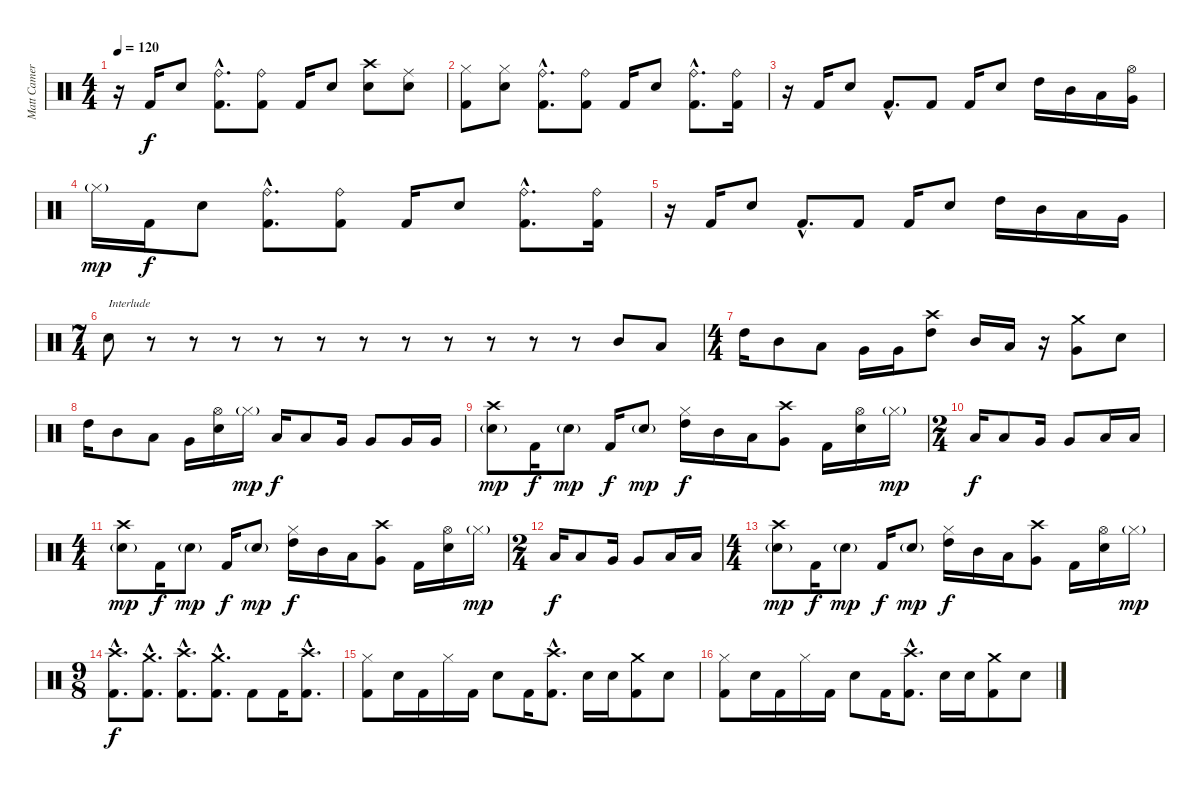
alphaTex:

\track ("Matt Cameron" "Matt Camer") {instrument percussion}
\staff {score}
\articulation defaults
\ts (4 4)
\tempo 120
\clef neutral
\ks c
r.16{dy f} "Kick (hit) 2".16 "Electric Snare (hit)".8 ("Ride (bell)"{hac} "Kick (hit) 2"{hac}).8{d} ("Ride (bell)" "Kick (hit) 2").8 "Kick (hit) 2".16 "Electric Snare (hit)".8 ("Crash high (hit)" "Electric Snare (hit)").8 ("Ride (middle)" "Electric Snare (hit)").8 |
("Hi-Hat (closed)" "Kick (hit) 2").8 ("Hi-Hat (closed)" "Electric Snare (hit)").8 ("Ride (bell)"{hac} "Kick (hit) 2"{hac}).8{d} ("Ride (bell)" "Kick (hit) 2").8 "Kick (hit) 2".16 "Electric Snare (hit)".8 ("Ride (bell)"{hac} "Kick (hit) 2"{hac}).8{d} ("Ride (bell)" "Kick (hit) 2").16 |
r.16 "Kick (hit) 2".16 "Electric Snare (hit)".8 "Kick (hit) 2"{hac}.8{d} "Kick (hit) 2".8 "Kick (hit) 2".16 "Electric Snare (hit)".8 "High Tom (hit)".16 "Mid Tom (hit)".16 "Low Tom (hit)".16 ("Hi-Hat (open)" "Very Low Tom (hit)").16 |
"Hi-Hat (closed)"{g}.16{dy mp} "Kick (hit) 2".16{dy f} "Electric Snare (hit)".8 ("Ride (bell)"{hac} "Kick (hit) 2"{hac}).8{d} ("Ride (bell)" "Kick (hit) 2").8 "Kick (hit) 2".16 "Electric Snare (hit)".8 ("Ride (bell)"{hac} "Kick (hit) 2"{hac}).8{d} ("Ride (bell)" "Kick (hit) 2").16 |
r.16 "Kick (hit) 2".16 "Electric Snare (hit)".8 "Kick (hit) 2"{hac}.8{d} "Kick (hit) 2".8 "Kick (hit) 2".16 "Electric Snare (hit)".8 "High Tom (hit)".16 "Mid Tom (hit)".16 "Low Tom (hit)".16 "Very Low Tom (hit)".16 |
\ts (7 4)
"Electric Snare (hit)".8{txt "Interlude"} r.8 r.8 r.8 r.8 r.8 r.8 r.8 r.8 r.8 r.8 r.8 "Mid Tom (hit)".8 "Low Tom (hit)".8 |
\ts (4 4)
"High Tom (hit)".16 "Mid Tom (hit)".8 "Low Tom (hit)".8 "Very Low Tom (hit)".16 "Very Low Tom (hit)".16 ("Crash high (hit)" "High Tom (hit)").8 "Mid Tom (hit)".16 "Low Tom (hit)".16 r.16 ("Crash medium (hit)" "Very Low Tom (hit)").8 "Electric Snare (hit)".8 |
"High Tom (hit)".16 "Mid Tom (hit)".8 "Low Tom (hit)".8 "Very Low Tom (hit)".16 ("Hi-Hat (open)" "Electric Snare (hit)").16 "Hi-Hat (closed)"{g}.16{dy mp} "Low Tom (hit)".16{dy f} "Low Tom (hit)".8 "Very Low Tom (hit)".16 "Very Low Tom (hit)".8 "Very Low Tom (hit)".16 "Very Low Tom (hit)".16 |
("Crash high (hit)" "Electric Snare (hit)"{g}).8{dy mp} "Kick (hit) 2".16{dy f} "Electric Snare (hit)"{g}.8{dy mp} "Kick (hit) 2".16{dy f} "Electric Snare (hit)"{g}.8{dy mp} ("Hi-Hat (closed)" "High Tom (hit)").16{dy f} "Mid Tom (hit)".16 "Low Tom (hit)".16 ("Crash high (hit)" "Very Low Tom (hit)").8 "Kick (hit) 2".16 ("Hi-Hat (open)" "Electric Snare (hit)").16 "Hi-Hat (closed)"{g}.16{dy mp} |
\ts (2 4)
"Low Tom (hit)".16{dy f} "Low Tom (hit)".8 "Very Low Tom (hit)".16 "Very Low Tom (hit)".8 "Low Tom (hit)".16 "Low Tom (hit)".16 |
\ts (4 4)
("Crash high (hit)" "Electric Snare (hit)"{g}).8{dy mp} "Kick (hit) 2".16{dy f} "Electric Snare (hit)"{g}.8{dy mp} "Kick (hit) 2".16{dy f} "Electric Snare (hit)"{g}.8{dy mp} ("Hi-Hat (closed)" "High Tom (hit)").16{dy f} "Mid Tom (hit)".16 "Low Tom (hit)".16 ("Crash high (hit)" "Very Low Tom (hit)").8 "Kick (hit) 2".16 ("Hi-Hat (open)" "Electric Snare (hit)").16 "Hi-Hat (closed)"{g}.16{dy mp} |
\ts (2 4)
"Low Tom (hit)".16{dy f} "Low Tom (hit)".8 "Very Low Tom (hit)".16 "Very Low Tom (hit)".8 "Low Tom (hit)".16 "Low Tom (hit)".16 |
\ts (4 4)
("Crash high (hit)" "Electric Snare (hit)"{g}).8{dy mp} "Kick (hit) 2".16{dy f} "Electric Snare (hit)"{g}.8{dy mp} "Kick (hit) 2".16{dy f} "Electric Snare (hit)"{g}.8{dy mp} ("Hi-Hat (closed)" "High Tom (hit)").16{dy f} "Mid Tom (hit)".16 "Low Tom (hit)".16 ("Crash high (hit)" "Very Low Tom (hit)").8 "Kick (hit) 2".16 ("Hi-Hat (open)" "Electric Snare (hit)").16 "Hi-Hat (closed)"{g}.16{dy mp} |
\ts (9 8)
("Crash high (hit)"{hac} "Kick (hit) 2"{hac}).8{d dy f} ("Crash medium (hit)"{hac} "Kick (hit) 2"{hac}).8{d} ("Crash high (hit)"{hac} "Kick (hit) 2"{hac}).8{d} ("Crash medium (hit)"{hac} "Kick (hit) 2"{hac}).8{d} "Kick (hit) 2".8 "Kick (hit) 2".16 ("Crash high (hit)"{hac} "Kick (hit) 2"{hac}).8{d} |
("Hi-Hat (closed)" "Kick (hit) 2").8 "Electric Snare (hit)".16 "Kick (hit) 2".16 "Hi-Hat (closed)".16 "Kick (hit) 2".16 "Electric Snare (hit)".8 "Kick (hit) 2".16 ("Crash high (hit)"{hac} "Kick (hit) 2"{hac}).8{d} "Electric Snare (hit)".16 "Electric Snare (hit)".16 ("Crash medium (hit)" "Kick (hit) 2").8 "Electric Snare (hit)".8 |
("Hi-Hat (closed)" "Kick (hit) 2").8 "Electric Snare (hit)".16 "Kick (hit) 2".16 "Hi-Hat (closed)".16 "Kick (hit) 2".16 "Electric Snare (hit)".8 "Kick (hit) 2".16 ("Crash high (hit)"{hac} "Kick (hit) 2"{hac}).8{d} "Electric Snare (hit)".16 "Electric Snare (hit)".16 ("Crash medium (hit)" "Kick (hit) 2").8 "Electric Snare (hit)".8
